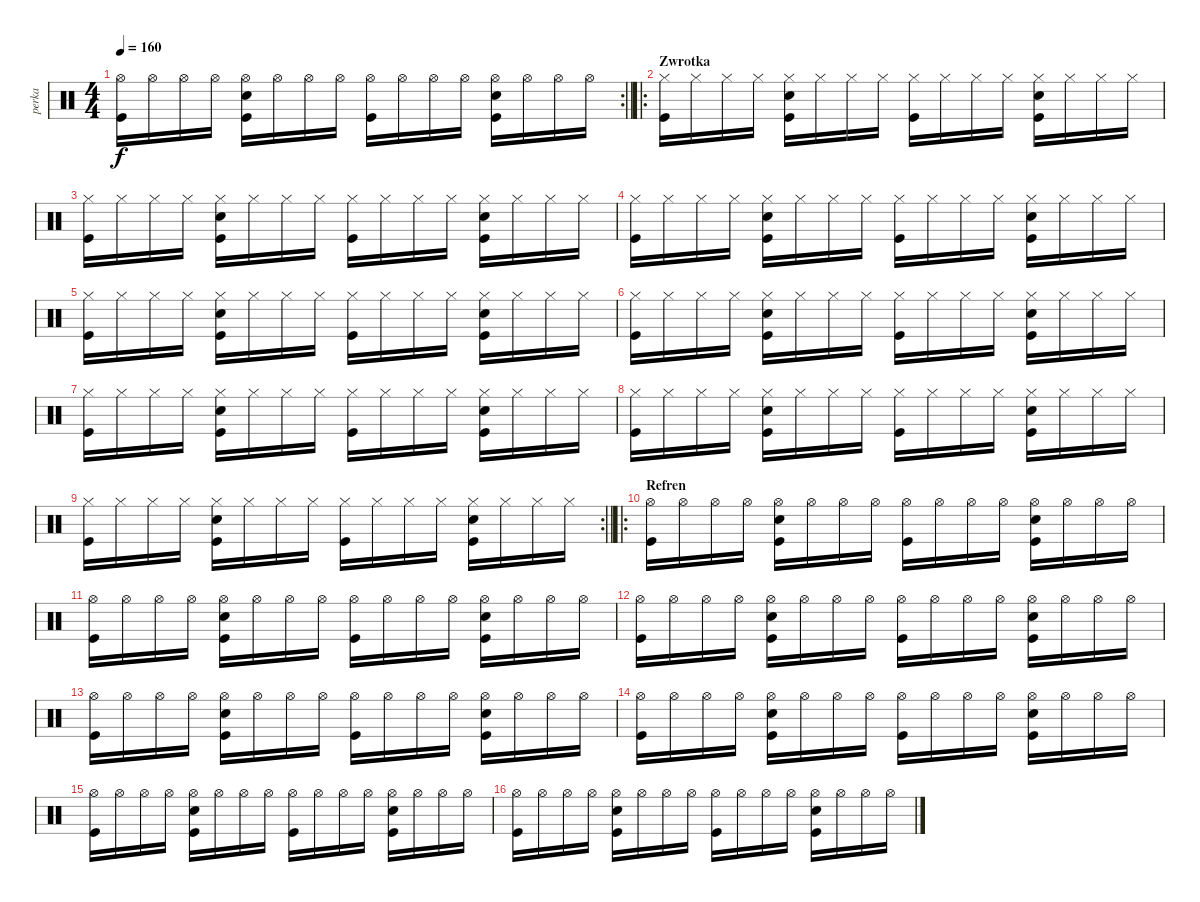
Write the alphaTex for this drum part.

\track ("perka" "perka") {instrument percussion}
\staff {score}
\articulation defaults
\rc 2
\ts (4 4)
\tempo 160
\clef neutral
\barLineRight lightlight
\ks c
("Hi-Hat (open)" "Kick (hit)").16{dy f} "Hi-Hat (open)".16 "Hi-Hat (open)".16 "Hi-Hat (open)".16 ("Hi-Hat (open)" "Snare (hit) 2" "Kick (hit)").16 "Hi-Hat (open)".16 "Hi-Hat (open)".16 "Hi-Hat (open)".16 ("Hi-Hat (open)" "Kick (hit)").16 "Hi-Hat (open)".16 "Hi-Hat (open)".16 "Hi-Hat (open)".16 ("Hi-Hat (open)" "Snare (hit) 2" "Kick (hit)").16 "Hi-Hat (open)".16 "Hi-Hat (open)".16 "Hi-Hat (open)".16 |
\ro
\section ("" "Zwrotka")
("Hi-Hat (closed)" "Kick (hit)").16 "Hi-Hat (closed)".16 "Hi-Hat (closed)".16 "Hi-Hat (closed)".16 ("Hi-Hat (closed)" "Snare (hit) 2" "Kick (hit)").16 "Hi-Hat (closed)".16 "Hi-Hat (closed)".16 "Hi-Hat (closed)".16 ("Hi-Hat (closed)" "Kick (hit)").16 "Hi-Hat (closed)".16 "Hi-Hat (closed)".16 "Hi-Hat (closed)".16 ("Hi-Hat (closed)" "Snare (hit) 2" "Kick (hit)").16 "Hi-Hat (closed)".16 "Hi-Hat (closed)".16 "Hi-Hat (closed)".16 |
("Hi-Hat (closed)" "Kick (hit)").16 "Hi-Hat (closed)".16 "Hi-Hat (closed)".16 "Hi-Hat (closed)".16 ("Hi-Hat (closed)" "Snare (hit) 2" "Kick (hit)").16 "Hi-Hat (closed)".16 "Hi-Hat (closed)".16 "Hi-Hat (closed)".16 ("Hi-Hat (closed)" "Kick (hit)").16 "Hi-Hat (closed)".16 "Hi-Hat (closed)".16 "Hi-Hat (closed)".16 ("Hi-Hat (closed)" "Snare (hit) 2" "Kick (hit)").16 "Hi-Hat (closed)".16 "Hi-Hat (closed)".16 "Hi-Hat (closed)".16 |
("Hi-Hat (closed)" "Kick (hit)").16 "Hi-Hat (closed)".16 "Hi-Hat (closed)".16 "Hi-Hat (closed)".16 ("Hi-Hat (closed)" "Snare (hit) 2" "Kick (hit)").16 "Hi-Hat (closed)".16 "Hi-Hat (closed)".16 "Hi-Hat (closed)".16 ("Hi-Hat (closed)" "Kick (hit)").16 "Hi-Hat (closed)".16 "Hi-Hat (closed)".16 "Hi-Hat (closed)".16 ("Hi-Hat (closed)" "Snare (hit) 2" "Kick (hit)").16 "Hi-Hat (closed)".16 "Hi-Hat (closed)".16 "Hi-Hat (closed)".16 |
("Hi-Hat (closed)" "Kick (hit)").16 "Hi-Hat (closed)".16 "Hi-Hat (closed)".16 "Hi-Hat (closed)".16 ("Hi-Hat (closed)" "Snare (hit) 2" "Kick (hit)").16 "Hi-Hat (closed)".16 "Hi-Hat (closed)".16 "Hi-Hat (closed)".16 ("Hi-Hat (closed)" "Kick (hit)").16 "Hi-Hat (closed)".16 "Hi-Hat (closed)".16 "Hi-Hat (closed)".16 ("Hi-Hat (closed)" "Snare (hit) 2" "Kick (hit)").16 "Hi-Hat (closed)".16 "Hi-Hat (closed)".16 "Hi-Hat (closed)".16 |
("Hi-Hat (closed)" "Kick (hit)").16 "Hi-Hat (closed)".16 "Hi-Hat (closed)".16 "Hi-Hat (closed)".16 ("Hi-Hat (closed)" "Snare (hit) 2" "Kick (hit)").16 "Hi-Hat (closed)".16 "Hi-Hat (closed)".16 "Hi-Hat (closed)".16 ("Hi-Hat (closed)" "Kick (hit)").16 "Hi-Hat (closed)".16 "Hi-Hat (closed)".16 "Hi-Hat (closed)".16 ("Hi-Hat (closed)" "Snare (hit) 2" "Kick (hit)").16 "Hi-Hat (closed)".16 "Hi-Hat (closed)".16 "Hi-Hat (closed)".16 |
("Hi-Hat (closed)" "Kick (hit)").16 "Hi-Hat (closed)".16 "Hi-Hat (closed)".16 "Hi-Hat (closed)".16 ("Hi-Hat (closed)" "Snare (hit) 2" "Kick (hit)").16 "Hi-Hat (closed)".16 "Hi-Hat (closed)".16 "Hi-Hat (closed)".16 ("Hi-Hat (closed)" "Kick (hit)").16 "Hi-Hat (closed)".16 "Hi-Hat (closed)".16 "Hi-Hat (closed)".16 ("Hi-Hat (closed)" "Snare (hit) 2" "Kick (hit)").16 "Hi-Hat (closed)".16 "Hi-Hat (closed)".16 "Hi-Hat (closed)".16 |
("Hi-Hat (closed)" "Kick (hit)").16 "Hi-Hat (closed)".16 "Hi-Hat (closed)".16 "Hi-Hat (closed)".16 ("Hi-Hat (closed)" "Snare (hit) 2" "Kick (hit)").16 "Hi-Hat (closed)".16 "Hi-Hat (closed)".16 "Hi-Hat (closed)".16 ("Hi-Hat (closed)" "Kick (hit)").16 "Hi-Hat (closed)".16 "Hi-Hat (closed)".16 "Hi-Hat (closed)".16 ("Hi-Hat (closed)" "Snare (hit) 2" "Kick (hit)").16 "Hi-Hat (closed)".16 "Hi-Hat (closed)".16 "Hi-Hat (closed)".16 |
\rc 2
\barLineRight lightlight
("Hi-Hat (closed)" "Kick (hit)").16 "Hi-Hat (closed)".16 "Hi-Hat (closed)".16 "Hi-Hat (closed)".16 ("Hi-Hat (closed)" "Snare (hit) 2" "Kick (hit)").16 "Hi-Hat (closed)".16 "Hi-Hat (closed)".16 "Hi-Hat (closed)".16 ("Hi-Hat (closed)" "Kick (hit)").16 "Hi-Hat (closed)".16 "Hi-Hat (closed)".16 "Hi-Hat (closed)".16 ("Hi-Hat (closed)" "Snare (hit) 2" "Kick (hit)").16 "Hi-Hat (closed)".16 "Hi-Hat (closed)".16 "Hi-Hat (closed)".16 |
\ro
\section ("" "Refren")
("Hi-Hat (open)" "Kick (hit)").16 "Hi-Hat (open)".16 "Hi-Hat (open)".16 "Hi-Hat (open)".16 ("Hi-Hat (open)" "Snare (hit) 2" "Kick (hit)").16 "Hi-Hat (open)".16 "Hi-Hat (open)".16 "Hi-Hat (open)".16 ("Hi-Hat (open)" "Kick (hit)").16 "Hi-Hat (open)".16 "Hi-Hat (open)".16 "Hi-Hat (open)".16 ("Hi-Hat (open)" "Snare (hit) 2" "Kick (hit)").16 "Hi-Hat (open)".16 "Hi-Hat (open)".16 "Hi-Hat (open)".16 |
("Hi-Hat (open)" "Kick (hit)").16 "Hi-Hat (open)".16 "Hi-Hat (open)".16 "Hi-Hat (open)".16 ("Hi-Hat (open)" "Snare (hit) 2" "Kick (hit)").16 "Hi-Hat (open)".16 "Hi-Hat (open)".16 "Hi-Hat (open)".16 ("Hi-Hat (open)" "Kick (hit)").16 "Hi-Hat (open)".16 "Hi-Hat (open)".16 "Hi-Hat (open)".16 ("Hi-Hat (open)" "Snare (hit) 2" "Kick (hit)").16 "Hi-Hat (open)".16 "Hi-Hat (open)".16 "Hi-Hat (open)".16 |
("Hi-Hat (open)" "Kick (hit)").16 "Hi-Hat (open)".16 "Hi-Hat (open)".16 "Hi-Hat (open)".16 ("Hi-Hat (open)" "Snare (hit) 2" "Kick (hit)").16 "Hi-Hat (open)".16 "Hi-Hat (open)".16 "Hi-Hat (open)".16 ("Hi-Hat (open)" "Kick (hit)").16 "Hi-Hat (open)".16 "Hi-Hat (open)".16 "Hi-Hat (open)".16 ("Hi-Hat (open)" "Snare (hit) 2" "Kick (hit)").16 "Hi-Hat (open)".16 "Hi-Hat (open)".16 "Hi-Hat (open)".16 |
("Hi-Hat (open)" "Kick (hit)").16 "Hi-Hat (open)".16 "Hi-Hat (open)".16 "Hi-Hat (open)".16 ("Hi-Hat (open)" "Snare (hit) 2" "Kick (hit)").16 "Hi-Hat (open)".16 "Hi-Hat (open)".16 "Hi-Hat (open)".16 ("Hi-Hat (open)" "Kick (hit)").16 "Hi-Hat (open)".16 "Hi-Hat (open)".16 "Hi-Hat (open)".16 ("Hi-Hat (open)" "Snare (hit) 2" "Kick (hit)").16 "Hi-Hat (open)".16 "Hi-Hat (open)".16 "Hi-Hat (open)".16 |
("Hi-Hat (open)" "Kick (hit)").16 "Hi-Hat (open)".16 "Hi-Hat (open)".16 "Hi-Hat (open)".16 ("Hi-Hat (open)" "Snare (hit) 2" "Kick (hit)").16 "Hi-Hat (open)".16 "Hi-Hat (open)".16 "Hi-Hat (open)".16 ("Hi-Hat (open)" "Kick (hit)").16 "Hi-Hat (open)".16 "Hi-Hat (open)".16 "Hi-Hat (open)".16 ("Hi-Hat (open)" "Snare (hit) 2" "Kick (hit)").16 "Hi-Hat (open)".16 "Hi-Hat (open)".16 "Hi-Hat (open)".16 |
("Hi-Hat (open)" "Kick (hit)").16 "Hi-Hat (open)".16 "Hi-Hat (open)".16 "Hi-Hat (open)".16 ("Hi-Hat (open)" "Snare (hit) 2" "Kick (hit)").16 "Hi-Hat (open)".16 "Hi-Hat (open)".16 "Hi-Hat (open)".16 ("Hi-Hat (open)" "Kick (hit)").16 "Hi-Hat (open)".16 "Hi-Hat (open)".16 "Hi-Hat (open)".16 ("Hi-Hat (open)" "Snare (hit) 2" "Kick (hit)").16 "Hi-Hat (open)".16 "Hi-Hat (open)".16 "Hi-Hat (open)".16 |
("Hi-Hat (open)" "Kick (hit)").16 "Hi-Hat (open)".16 "Hi-Hat (open)".16 "Hi-Hat (open)".16 ("Hi-Hat (open)" "Snare (hit) 2" "Kick (hit)").16 "Hi-Hat (open)".16 "Hi-Hat (open)".16 "Hi-Hat (open)".16 ("Hi-Hat (open)" "Kick (hit)").16 "Hi-Hat (open)".16 "Hi-Hat (open)".16 "Hi-Hat (open)".16 ("Hi-Hat (open)" "Snare (hit) 2" "Kick (hit)").16 "Hi-Hat (open)".16 "Hi-Hat (open)".16 "Hi-Hat (open)".16
